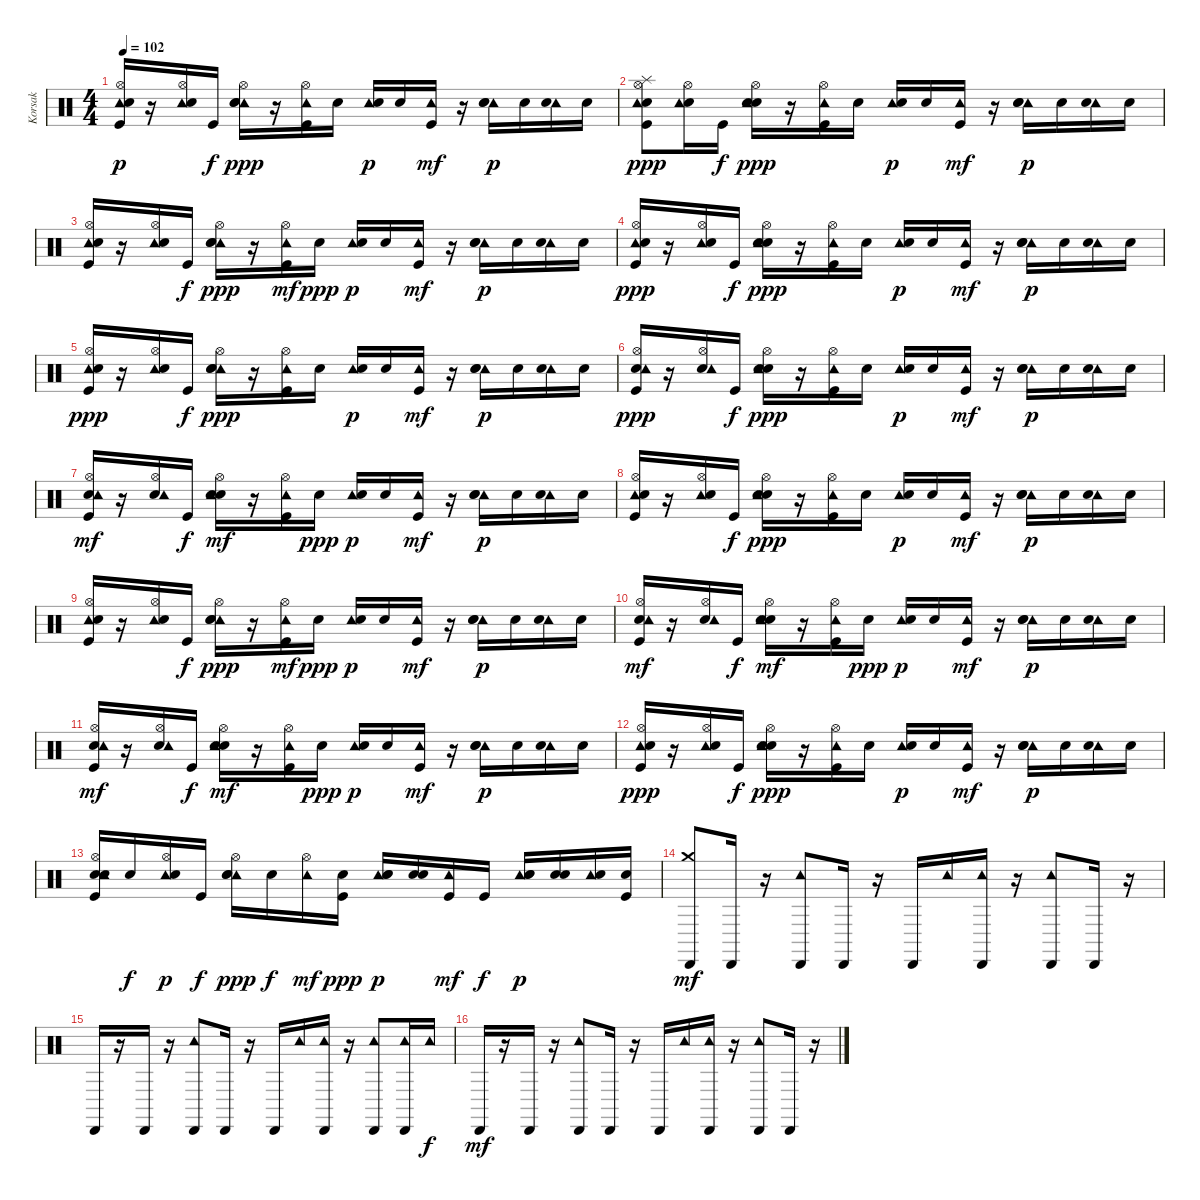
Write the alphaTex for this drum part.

\track ("Korsak" "Korsak") {instrument percussion}
\staff {score}
\articulation defaults
\ts (4 4)
\tempo 102
\clef neutral
\ks c
("Tambourine (hit)" "Kick (hit)" "Hi-Hat (open)" "Electric Snare (hit)").16{dy p} r.16 ("Tambourine (hit)" "Hi-Hat (open)" "Electric Snare (hit)").16 "Kick (hit)".16{dy f} ("Tambourine (hit)" "Snare (hit) 2" "Hi-Hat (open)" "Electric Snare (hit)").16{dy ppp} r.16 ("Tambourine (hit)" "Kick (hit)" "Hi-Hat (open)").16 "Electric Snare (hit)".16 ("Tambourine (hit)" "Electric Snare (hit)").16{dy p} "Electric Snare (hit)".16 ("Tambourine (hit)" "Kick (hit)").16{dy mf} r.16 ("Tambourine (hit)" "Electric Snare (hit)" "Snare (hit) 2").16{dy p} "Electric Snare (hit)".16 ("Tambourine (hit)" "Electric Snare (hit)").16 "Electric Snare (hit)".16 |
("Electric Snare (hit)" "Tambourine (hit)" "Splash (hit)" "Kick (hit)" "Hi-Hat (open)").8{dy ppp} ("Electric Snare (hit)" "Tambourine (hit)" "Hi-Hat (open)").16 "Kick (hit)".16{dy f} ("Electric Snare (hit)" "Tambourine (hit)" "Snare (hit) 2" "Hi-Hat (open)").16{dy ppp} r.16 ("Tambourine (hit)" "Kick (hit)" "Hi-Hat (open)").16 "Electric Snare (hit)".16 ("Tambourine (hit)" "Electric Snare (hit)").16{dy p} "Electric Snare (hit)".16 ("Tambourine (hit)" "Kick (hit)").16{dy mf} r.16 ("Tambourine (hit)" "Electric Snare (hit)" "Snare (hit) 2").16{dy p} "Electric Snare (hit)".16 ("Tambourine (hit)" "Electric Snare (hit)").16 "Electric Snare (hit)".16 |
("Hi-Hat (open)" "Tambourine (hit)" "Electric Snare (hit)" "Kick (hit)").16 r.16 ("Hi-Hat (open)" "Tambourine (hit)" "Electric Snare (hit)").16 "Kick (hit)".16{dy f} ("Hi-Hat (open)" "Tambourine (hit)" "Electric Snare (hit)" "Snare (hit) 2").16{dy ppp} r.16 ("Hi-Hat (open)" "Tambourine (hit)" "Kick (hit)").16{dy mf} "Electric Snare (hit)".16{dy ppp} ("Tambourine (hit)" "Electric Snare (hit)").16{dy p} "Electric Snare (hit)".16 ("Tambourine (hit)" "Kick (hit)").16{dy mf} r.16 ("Tambourine (hit)" "Electric Snare (hit)" "Snare (hit) 2").16{dy p} "Electric Snare (hit)".16 ("Tambourine (hit)" "Electric Snare (hit)").16 "Electric Snare (hit)".16 |
("Kick (hit)" "Tambourine (hit)" "Electric Snare (hit)" "Hi-Hat (open)").16{dy ppp} r.16 ("Tambourine (hit)" "Electric Snare (hit)" "Hi-Hat (open)").16 "Kick (hit)".16{dy f} ("Snare (hit) 2" "Tambourine (hit)" "Electric Snare (hit)" "Hi-Hat (open)").16{dy ppp} r.16 ("Kick (hit)" "Tambourine (hit)" "Hi-Hat (open)").16 "Electric Snare (hit)".16 ("Tambourine (hit)" "Electric Snare (hit)").16{dy p} "Electric Snare (hit)".16 ("Kick (hit)" "Tambourine (hit)").16{dy mf} r.16 ("Tambourine (hit)" "Electric Snare (hit)" "Snare (hit) 2").16{dy p} "Electric Snare (hit)".16 ("Tambourine (hit)" "Electric Snare (hit)").16 "Electric Snare (hit)".16 |
("Tambourine (hit)" "Electric Snare (hit)" "Kick (hit)" "Hi-Hat (open)").16{dy ppp} r.16 ("Tambourine (hit)" "Electric Snare (hit)" "Hi-Hat (open)").16 "Kick (hit)".16{dy f} ("Tambourine (hit)" "Electric Snare (hit)" "Snare (hit) 2" "Hi-Hat (open)").16{dy ppp} r.16 ("Tambourine (hit)" "Kick (hit)" "Hi-Hat (open)").16 "Electric Snare (hit)".16 ("Tambourine (hit)" "Electric Snare (hit)").16{dy p} "Electric Snare (hit)".16 ("Tambourine (hit)" "Kick (hit)").16{dy mf} r.16 ("Tambourine (hit)" "Electric Snare (hit)" "Snare (hit) 2").16{dy p} "Electric Snare (hit)".16 ("Tambourine (hit)" "Electric Snare (hit)").16 "Electric Snare (hit)".16 |
("Kick (hit)" "Electric Snare (hit)" "Tambourine (hit)" "Hi-Hat (open)").16{dy ppp} r.16 ("Electric Snare (hit)" "Tambourine (hit)" "Hi-Hat (open)").16 "Kick (hit)".16{dy f} ("Snare (hit) 2" "Electric Snare (hit)" "Tambourine (hit)" "Hi-Hat (open)").16{dy ppp} r.16 ("Kick (hit)" "Tambourine (hit)" "Hi-Hat (open)").16 "Electric Snare (hit)".16 ("Tambourine (hit)" "Electric Snare (hit)").16{dy p} "Electric Snare (hit)".16 ("Kick (hit)" "Tambourine (hit)").16{dy mf} r.16 ("Tambourine (hit)" "Electric Snare (hit)" "Snare (hit) 2").16{dy p} "Electric Snare (hit)".16 ("Tambourine (hit)" "Electric Snare (hit)").16 "Electric Snare (hit)".16 |
("Electric Snare (hit)" "Hi-Hat (open)" "Tambourine (hit)" "Kick (hit)").16{dy mf} r.16 ("Electric Snare (hit)" "Hi-Hat (open)" "Tambourine (hit)").16 "Kick (hit)".16{dy f} ("Electric Snare (hit)" "Hi-Hat (open)" "Tambourine (hit)" "Snare (hit) 2").16{dy mf} r.16 ("Hi-Hat (open)" "Tambourine (hit)" "Kick (hit)").16 "Electric Snare (hit)".16{dy ppp} ("Tambourine (hit)" "Electric Snare (hit)").16{dy p} "Electric Snare (hit)".16 ("Tambourine (hit)" "Kick (hit)").16{dy mf} r.16 ("Tambourine (hit)" "Electric Snare (hit)" "Snare (hit) 2").16{dy p} "Electric Snare (hit)".16 ("Tambourine (hit)" "Electric Snare (hit)").16 "Electric Snare (hit)".16 |
("Kick (hit)" "Tambourine (hit)" "Hi-Hat (open)" "Electric Snare (hit)").16 r.16 ("Tambourine (hit)" "Hi-Hat (open)" "Electric Snare (hit)").16 "Kick (hit)".16{dy f} ("Snare (hit) 2" "Tambourine (hit)" "Hi-Hat (open)" "Electric Snare (hit)").16{dy ppp} r.16 ("Kick (hit)" "Tambourine (hit)" "Hi-Hat (open)").16 "Electric Snare (hit)".16 ("Tambourine (hit)" "Electric Snare (hit)").16{dy p} "Electric Snare (hit)".16 ("Kick (hit)" "Tambourine (hit)").16{dy mf} r.16 ("Tambourine (hit)" "Electric Snare (hit)" "Snare (hit) 2").16{dy p} "Electric Snare (hit)".16 ("Tambourine (hit)" "Electric Snare (hit)").16 "Electric Snare (hit)".16 |
("Hi-Hat (open)" "Tambourine (hit)" "Electric Snare (hit)" "Kick (hit)").16 r.16 ("Hi-Hat (open)" "Tambourine (hit)" "Electric Snare (hit)").16 "Kick (hit)".16{dy f} ("Hi-Hat (open)" "Tambourine (hit)" "Electric Snare (hit)" "Snare (hit) 2").16{dy ppp} r.16 ("Hi-Hat (open)" "Tambourine (hit)" "Kick (hit)").16{dy mf} "Electric Snare (hit)".16{dy ppp} ("Tambourine (hit)" "Electric Snare (hit)").16{dy p} "Electric Snare (hit)".16 ("Tambourine (hit)" "Kick (hit)").16{dy mf} r.16 ("Tambourine (hit)" "Electric Snare (hit)" "Snare (hit) 2").16{dy p} "Electric Snare (hit)".16 ("Tambourine (hit)" "Electric Snare (hit)").16 "Electric Snare (hit)".16 |
("Electric Snare (hit)" "Hi-Hat (open)" "Kick (hit)" "Tambourine (hit)").16{dy mf} r.16 ("Electric Snare (hit)" "Hi-Hat (open)" "Tambourine (hit)").16 "Kick (hit)".16{dy f} ("Electric Snare (hit)" "Hi-Hat (open)" "Snare (hit) 2" "Tambourine (hit)").16{dy mf} r.16 ("Hi-Hat (open)" "Kick (hit)" "Tambourine (hit)").16 "Electric Snare (hit)".16{dy ppp} ("Tambourine (hit)" "Electric Snare (hit)").16{dy p} "Electric Snare (hit)".16 ("Kick (hit)" "Tambourine (hit)").16{dy mf} r.16 ("Tambourine (hit)" "Electric Snare (hit)" "Snare (hit) 2").16{dy p} "Electric Snare (hit)".16 ("Tambourine (hit)" "Electric Snare (hit)").16 "Electric Snare (hit)".16 |
("Kick (hit)" "Hi-Hat (open)" "Electric Snare (hit)" "Tambourine (hit)").16{dy mf} r.16 ("Hi-Hat (open)" "Electric Snare (hit)" "Tambourine (hit)").16 "Kick (hit)".16{dy f} ("Snare (hit) 2" "Hi-Hat (open)" "Electric Snare (hit)" "Tambourine (hit)").16{dy mf} r.16 ("Kick (hit)" "Hi-Hat (open)" "Tambourine (hit)").16 "Electric Snare (hit)".16{dy ppp} ("Tambourine (hit)" "Electric Snare (hit)").16{dy p} "Electric Snare (hit)".16 ("Kick (hit)" "Tambourine (hit)").16{dy mf} r.16 ("Tambourine (hit)" "Electric Snare (hit)" "Snare (hit) 2").16{dy p} "Electric Snare (hit)".16 ("Tambourine (hit)" "Electric Snare (hit)").16 "Electric Snare (hit)".16 |
("Kick (hit)" "Tambourine (hit)" "Electric Snare (hit)" "Hi-Hat (open)").16{dy ppp} r.16 ("Tambourine (hit)" "Electric Snare (hit)" "Hi-Hat (open)").16 "Kick (hit)".16{dy f} ("Snare (hit) 2" "Tambourine (hit)" "Electric Snare (hit)" "Hi-Hat (open)").16{dy ppp} r.16 ("Kick (hit)" "Tambourine (hit)" "Hi-Hat (open)").16 "Electric Snare (hit)".16 ("Tambourine (hit)" "Electric Snare (hit)").16{dy p} "Electric Snare (hit)".16 ("Kick (hit)" "Tambourine (hit)").16{dy mf} r.16 ("Tambourine (hit)" "Electric Snare (hit)" "Snare (hit) 2").16{dy p} "Electric Snare (hit)".16 ("Tambourine (hit)" "Electric Snare (hit)").16 "Electric Snare (hit)".16 |
("Snare (hit) 2" "Hi-Hat (open)" "Tambourine (hit)" "Kick (hit)" "Electric Snare (hit)").16 "Snare (hit) 2".16{dy f} ("Hi-Hat (open)" "Tambourine (hit)" "Electric Snare (hit)").16{dy p} "Kick (hit)".16{dy f} ("Hi-Hat (open)" "Tambourine (hit)" "Snare (hit) 2" "Electric Snare (hit)").16{dy ppp} "Snare (hit) 2".16{dy f} ("Hi-Hat (open)" "Tambourine (hit)").16{dy mf} ("Kick (hit)" "Electric Snare (hit)").16{dy ppp} ("Tambourine (hit)" "Snare (hit) 2" "Electric Snare (hit)").16{dy p} ("Snare (hit) 2" "Electric Snare (hit)").16 ("Tambourine (hit)" "Kick (hit)").16{dy mf} "Kick (hit)".16{dy f} ("Tambourine (hit)" "Snare (hit) 2" "Electric Snare (hit)").16{dy p} ("Snare (hit) 2" "Electric Snare (hit)").16 ("Tambourine (hit)" "Electric Snare (hit)").16 ("Kick (hit)" "Electric Snare (hit)").16 |
("Crash medium (hit)" "Cabasa (hit)").8{dy mf} "Cabasa (hit)".16 r.16 ("Tambourine (hit)" "Cabasa (hit)").8 "Cabasa (hit)".16 r.16 "Cabasa (hit)".16 "Tambourine (hit)".16 ("Tambourine (hit)" "Cabasa (hit)").16 r.16 ("Tambourine (hit)" "Cabasa (hit)").8 "Cabasa (hit)".16 r.16 |
"Cabasa (hit)".16 r.16 "Cabasa (hit)".16 r.16 ("Tambourine (hit)" "Cabasa (hit)").8 "Cabasa (hit)".16 r.16 "Cabasa (hit)".16 "Tambourine (hit)".16 ("Tambourine (hit)" "Cabasa (hit)").16 r.16 ("Tambourine (hit)" "Cabasa (hit)").8 ("Tambourine (hit)" "Cabasa (hit)").16 "Tambourine (hit)".16{dy f} |
"Cabasa (hit)".16{dy mf} r.16 "Cabasa (hit)".16 r.16 ("Tambourine (hit)" "Cabasa (hit)").8 "Cabasa (hit)".16 r.16 "Cabasa (hit)".16 "Tambourine (hit)".16 ("Tambourine (hit)" "Cabasa (hit)").16 r.16 ("Tambourine (hit)" "Cabasa (hit)").8 "Cabasa (hit)".16 r.16
